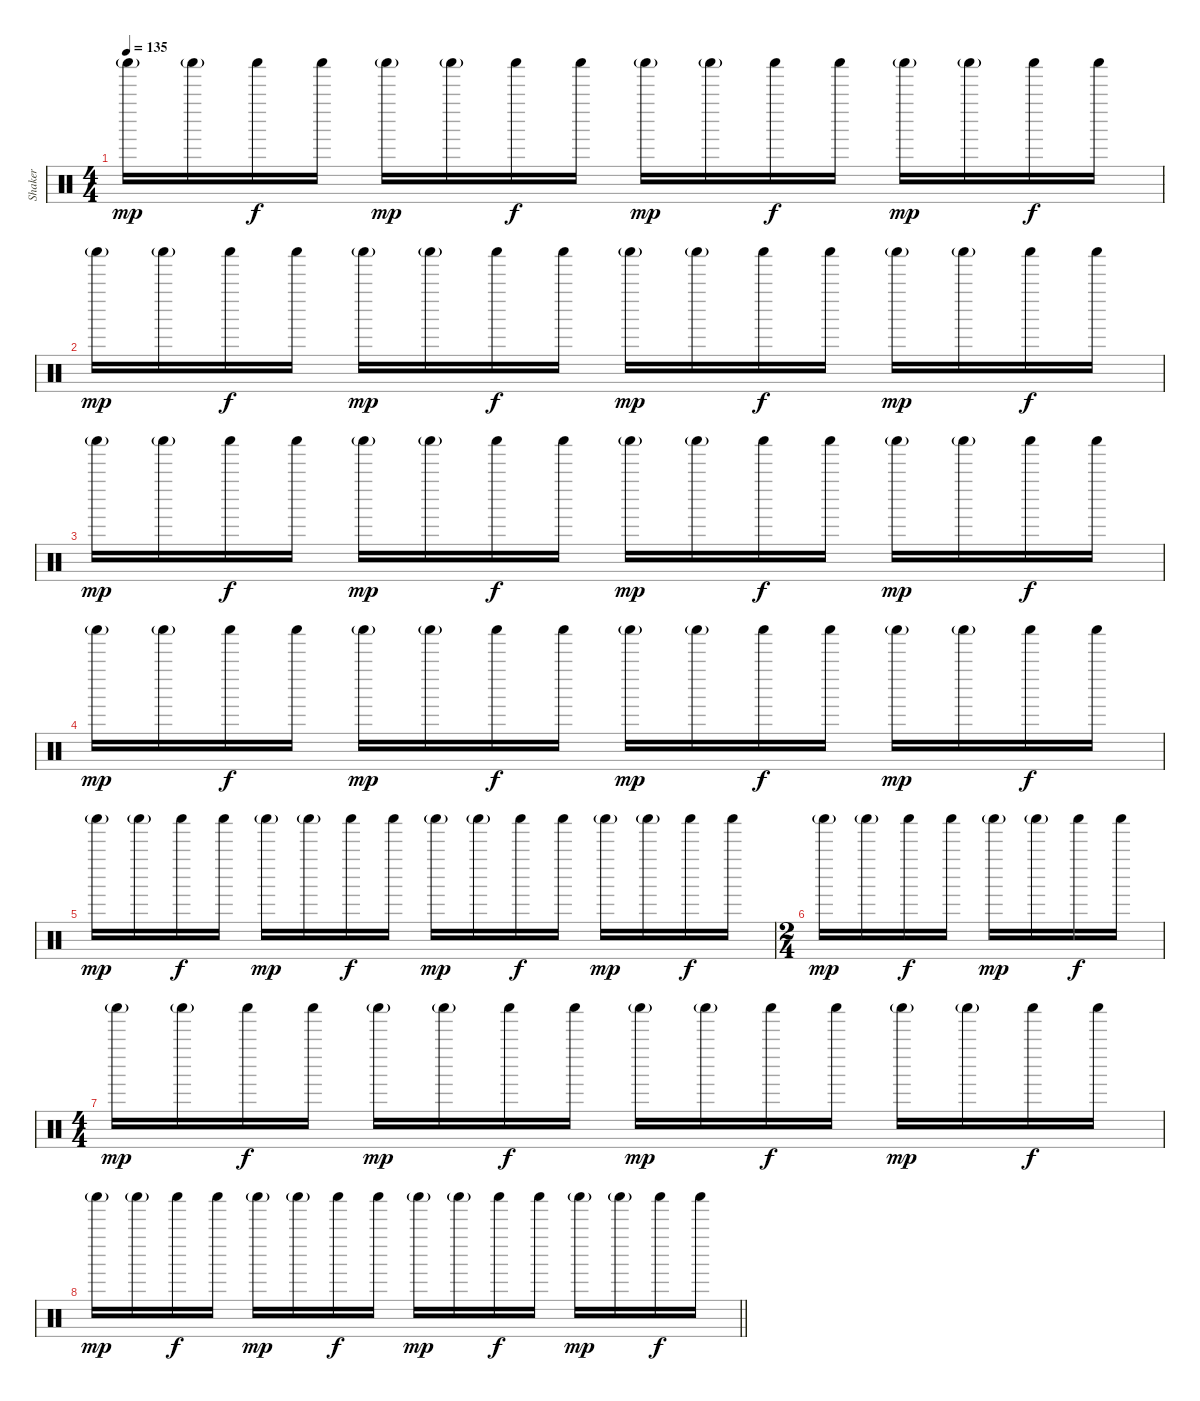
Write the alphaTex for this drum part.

\track ("Shaker" "Shaker") {instrument percussion}
\staff {score}
\articulation defaults
\ts (4 4)
\tempo 135
\clef neutral
\ks c "Shaker (hit)"{g}.16{dy mp} "Shaker (hit)"{g}.16 "Shaker (hit)".16{dy f} "Shaker (hit)".16 "Shaker (hit)"{g}.16{dy mp} "Shaker (hit)"{g}.16 "Shaker (hit)".16{dy f} "Shaker (hit)".16 "Shaker (hit)"{g}.16{dy mp} "Shaker (hit)"{g}.16 "Shaker (hit)".16{dy f} "Shaker (hit)".16 "Shaker (hit)"{g}.16{dy mp} "Shaker (hit)"{g}.16 "Shaker (hit)".16{dy f} "Shaker (hit)".16
|
"Shaker (hit)"{g}.16{dy mp} "Shaker (hit)"{g}.16 "Shaker (hit)".16{dy f} "Shaker (hit)".16 "Shaker (hit)"{g}.16{dy mp} "Shaker (hit)"{g}.16 "Shaker (hit)".16{dy f} "Shaker (hit)".16 "Shaker (hit)"{g}.16{dy mp} "Shaker (hit)"{g}.16 "Shaker (hit)".16{dy f} "Shaker (hit)".16 "Shaker (hit)"{g}.16{dy mp} "Shaker (hit)"{g}.16 "Shaker (hit)".16{dy f} "Shaker (hit)".16 |
"Shaker (hit)"{g}.16{dy mp} "Shaker (hit)"{g}.16 "Shaker (hit)".16{dy f} "Shaker (hit)".16 "Shaker (hit)"{g}.16{dy mp} "Shaker (hit)"{g}.16 "Shaker (hit)".16{dy f} "Shaker (hit)".16 "Shaker (hit)"{g}.16{dy mp} "Shaker (hit)"{g}.16 "Shaker (hit)".16{dy f} "Shaker (hit)".16 "Shaker (hit)"{g}.16{dy mp} "Shaker (hit)"{g}.16 "Shaker (hit)".16{dy f} "Shaker (hit)".16 |
"Shaker (hit)"{g}.16{dy mp} "Shaker (hit)"{g}.16 "Shaker (hit)".16{dy f} "Shaker (hit)".16 "Shaker (hit)"{g}.16{dy mp} "Shaker (hit)"{g}.16 "Shaker (hit)".16{dy f} "Shaker (hit)".16 "Shaker (hit)"{g}.16{dy mp} "Shaker (hit)"{g}.16 "Shaker (hit)".16{dy f} "Shaker (hit)".16 "Shaker (hit)"{g}.16{dy mp} "Shaker (hit)"{g}.16 "Shaker (hit)".16{dy f} "Shaker (hit)".16 |
"Shaker (hit)"{g}.16{dy mp} "Shaker (hit)"{g}.16 "Shaker (hit)".16{dy f} "Shaker (hit)".16 "Shaker (hit)"{g}.16{dy mp} "Shaker (hit)"{g}.16 "Shaker (hit)".16{dy f} "Shaker (hit)".16 "Shaker (hit)"{g}.16{dy mp} "Shaker (hit)"{g}.16 "Shaker (hit)".16{dy f} "Shaker (hit)".16 "Shaker (hit)"{g}.16{dy mp} "Shaker (hit)"{g}.16 "Shaker (hit)".16{dy f} "Shaker (hit)".16 |
\ts (2 4)
"Shaker (hit)"{g}.16{dy mp} "Shaker (hit)"{g}.16 "Shaker (hit)".16{dy f} "Shaker (hit)".16 "Shaker (hit)"{g}.16{dy mp} "Shaker (hit)"{g}.16 "Shaker (hit)".16{dy f} "Shaker (hit)".16 |
\ts (4 4)
"Shaker (hit)"{g}.16{dy mp} "Shaker (hit)"{g}.16 "Shaker (hit)".16{dy f} "Shaker (hit)".16 "Shaker (hit)"{g}.16{dy mp} "Shaker (hit)"{g}.16 "Shaker (hit)".16{dy f} "Shaker (hit)".16 "Shaker (hit)"{g}.16{dy mp} "Shaker (hit)"{g}.16 "Shaker (hit)".16{dy f} "Shaker (hit)".16 "Shaker (hit)"{g}.16{dy mp} "Shaker (hit)"{g}.16 "Shaker (hit)".16{dy f} "Shaker (hit)".16 |
\barLineRight lightlight "Shaker (hit)"{g}.16{dy mp} "Shaker (hit)"{g}.16 "Shaker (hit)".16{dy f} "Shaker (hit)".16 "Shaker (hit)"{g}.16{dy mp} "Shaker (hit)"{g}.16 "Shaker (hit)".16{dy f} "Shaker (hit)".16 "Shaker (hit)"{g}.16{dy mp} "Shaker (hit)"{g}.16 "Shaker (hit)".16{dy f} "Shaker (hit)".16 "Shaker (hit)"{g}.16{dy mp} "Shaker (hit)"{g}.16 "Shaker (hit)".16{dy f} "Shaker (hit)".16
